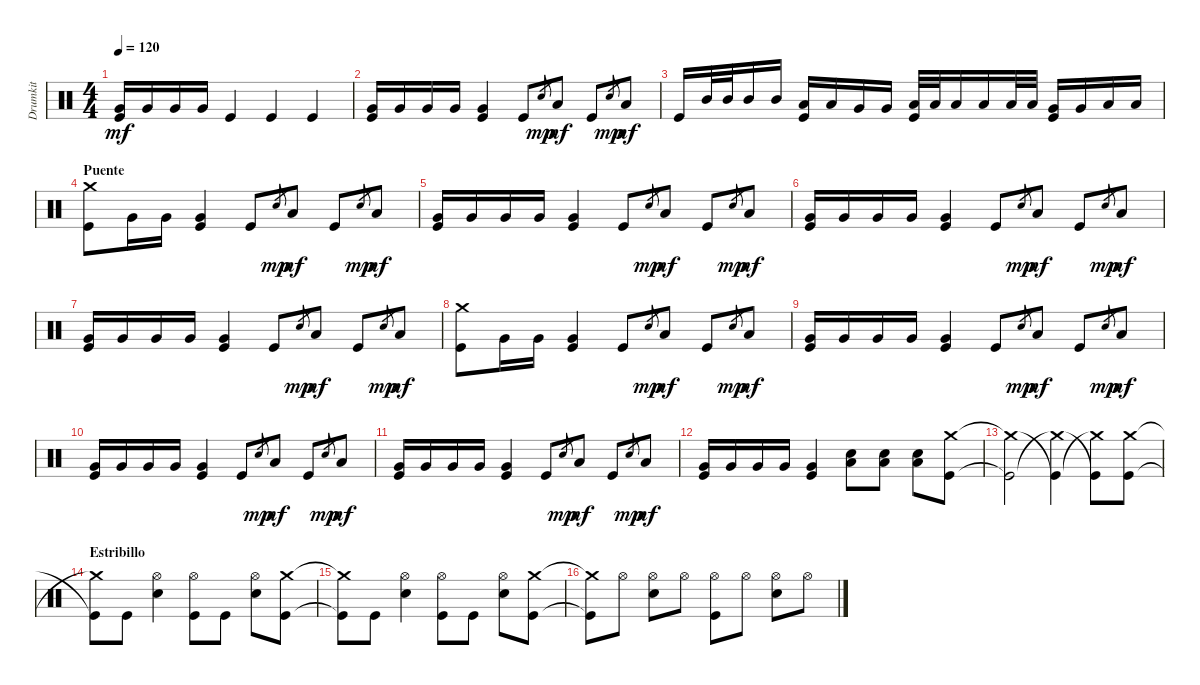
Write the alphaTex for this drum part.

\track ("Drumkit" "Drumkit") {instrument percussion}
\staff {score}
\articulation defaults
\ts (4 4)
\tempo 120
\clef neutral
\ks c
("Kick (hit)" "Very Low Tom (hit)").16{dy mf} "Very Low Tom (hit)".16 "Very Low Tom (hit)".16 "Very Low Tom (hit)".16 "Kick (hit)".4 "Kick (hit)".4 "Kick (hit)".4 |
("Kick (hit)" "Very Low Tom (hit)").16 "Very Low Tom (hit)".16 "Very Low Tom (hit)".16 "Very Low Tom (hit)".16 ("Very Low Tom (hit)" "Kick (hit)").4 "Kick (hit)".8 "Snare (hit)".8{gr dy mp} "Low Tom (hit)".8{dy mf} "Kick (hit)".8 "Snare (hit)".8{gr dy mp} "Low Tom (hit)".8{dy mf} |
"Kick (hit)".16 "Mid Tom (hit)".32 "Mid Tom (hit)".32 "Mid Tom (hit)".16 "Mid Tom (hit)".16 ("Low Tom (hit)" "Kick (hit)").16 "Low Tom (hit)".16 "Very Low Tom (hit)".16 "Very Low Tom (hit)".16 ("Kick (hit)" "Low Floor Tom (hit)").32 "Low Floor Tom (hit)".32 "Low Floor Tom (hit)".16 "Low Floor Tom (hit)".16 "Low Floor Tom (hit)".32 "Low Floor Tom (hit)".32 ("Kick (hit)" "Very Low Tom (hit)").16 "Very Low Tom (hit)".16 "Low Floor Tom (hit)".16 "Low Floor Tom (hit)".16 |
\section ("" "Puente")
("Kick (hit)" "Crash medium (hit)").8 "Very Low Tom (hit)".16 "Very Low Tom (hit)".16 ("Very Low Tom (hit)" "Kick (hit)").4 "Kick (hit)".8 "Snare (hit)".8{gr dy mp} "Low Tom (hit)".8{dy mf} "Kick (hit)".8 "Snare (hit)".8{gr dy mp} "Low Tom (hit)".8{dy mf} |
("Kick (hit)" "Very Low Tom (hit)").16 "Very Low Tom (hit)".16 "Very Low Tom (hit)".16 "Very Low Tom (hit)".16 ("Very Low Tom (hit)" "Kick (hit)").4 "Kick (hit)".8 "Snare (hit)".8{gr dy mp} "Low Tom (hit)".8{dy mf} "Kick (hit)".8 "Snare (hit)".8{gr dy mp} "Low Tom (hit)".8{dy mf} |
("Kick (hit)" "Very Low Tom (hit)").16 "Very Low Tom (hit)".16 "Very Low Tom (hit)".16 "Very Low Tom (hit)".16 ("Very Low Tom (hit)" "Kick (hit)").4 "Kick (hit)".8 "Snare (hit)".8{gr dy mp} "Low Tom (hit)".8{dy mf} "Kick (hit)".8 "Snare (hit)".8{gr dy mp} "Low Tom (hit)".8{dy mf} |
("Kick (hit)" "Very Low Tom (hit)").16 "Very Low Tom (hit)".16 "Very Low Tom (hit)".16 "Very Low Tom (hit)".16 ("Very Low Tom (hit)" "Kick (hit)").4 "Kick (hit)".8 "Snare (hit)".8{gr dy mp} "Low Tom (hit)".8{dy mf} "Kick (hit)".8 "Snare (hit)".8{gr dy mp} "Low Tom (hit)".8{dy mf} |
("Kick (hit)" "Crash medium (hit)").8 "Very Low Tom (hit)".16 "Very Low Tom (hit)".16 ("Very Low Tom (hit)" "Kick (hit)").4 "Kick (hit)".8 "Snare (hit)".8{gr dy mp} "Low Tom (hit)".8{dy mf} "Kick (hit)".8 "Snare (hit)".8{gr dy mp} "Low Tom (hit)".8{dy mf} |
("Kick (hit)" "Very Low Tom (hit)").16 "Very Low Tom (hit)".16 "Very Low Tom (hit)".16 "Very Low Tom (hit)".16 ("Very Low Tom (hit)" "Kick (hit)").4 "Kick (hit)".8 "Snare (hit)".8{gr dy mp} "Low Tom (hit)".8{dy mf} "Kick (hit)".8 "Snare (hit)".8{gr dy mp} "Low Tom (hit)".8{dy mf} |
("Kick (hit)" "Very Low Tom (hit)").16 "Very Low Tom (hit)".16 "Very Low Tom (hit)".16 "Very Low Tom (hit)".16 ("Very Low Tom (hit)" "Kick (hit)").4 "Kick (hit)".8 "Snare (hit)".8{gr dy mp} "Low Tom (hit)".8{dy mf} "Kick (hit)".8 "Snare (hit)".8{gr dy mp} "Low Tom (hit)".8{dy mf} |
("Kick (hit)" "Very Low Tom (hit)").16 "Very Low Tom (hit)".16 "Very Low Tom (hit)".16 "Very Low Tom (hit)".16 ("Very Low Tom (hit)" "Kick (hit)").4 "Kick (hit)".8 "Snare (hit)".8{gr dy mp} "Low Tom (hit)".8{dy mf} "Kick (hit)".8 "Snare (hit)".8{gr dy mp} "Low Tom (hit)".8{dy mf} |
("Kick (hit)" "Very Low Tom (hit)").16 "Very Low Tom (hit)".16 "Very Low Tom (hit)".16 "Very Low Tom (hit)".16 ("Very Low Tom (hit)" "Kick (hit)").4 ("Snare (hit) 2" "Low Floor Tom (hit)").8 ("Snare (hit) 2" "Low Floor Tom (hit)").8 ("Snare (hit) 2" "Low Floor Tom (hit)").8 ("Kick (hit)" "Crash medium (hit)").8 |
("Kick (hit)"{t} "Crash medium (hit)"{t}).2 ("Crash medium (hit)"{t} "Kick (hit)"{t}).4 ("Kick (hit)"{t} "Crash medium (hit)"{t}).8 ("Crash medium (hit)" "Kick (hit)").8 |
\section ("" "Estribillo")
("Kick (hit)"{t} "Crash medium (hit)"{t}).8 "Kick (hit)".8 ("Snare (hit) 2" "Hi-Hat (open)").4 ("Kick (hit)" "Hi-Hat (open)").8 "Kick (hit)".8 ("Snare (hit) 2" "Hi-Hat (open)").8 ("Kick (hit)" "Crash medium (hit)").8 |
("Kick (hit)"{t} "Crash medium (hit)"{t}).8 "Kick (hit)".8 ("Snare (hit) 2" "Hi-Hat (open)").4 ("Kick (hit)" "Hi-Hat (open)").8 "Kick (hit)".8 ("Snare (hit) 2" "Hi-Hat (open)").8 ("Kick (hit)" "Crash medium (hit)").8 |
("Kick (hit)"{t} "Crash medium (hit)"{t}).8 "Hi-Hat (open)".8 ("Snare (hit) 2" "Hi-Hat (open)").8 "Hi-Hat (open)".8 ("Hi-Hat (open)" "Kick (hit)").8 "Hi-Hat (open)".8 ("Hi-Hat (open)" "Snare (hit) 2").8 "Hi-Hat (open)".8
